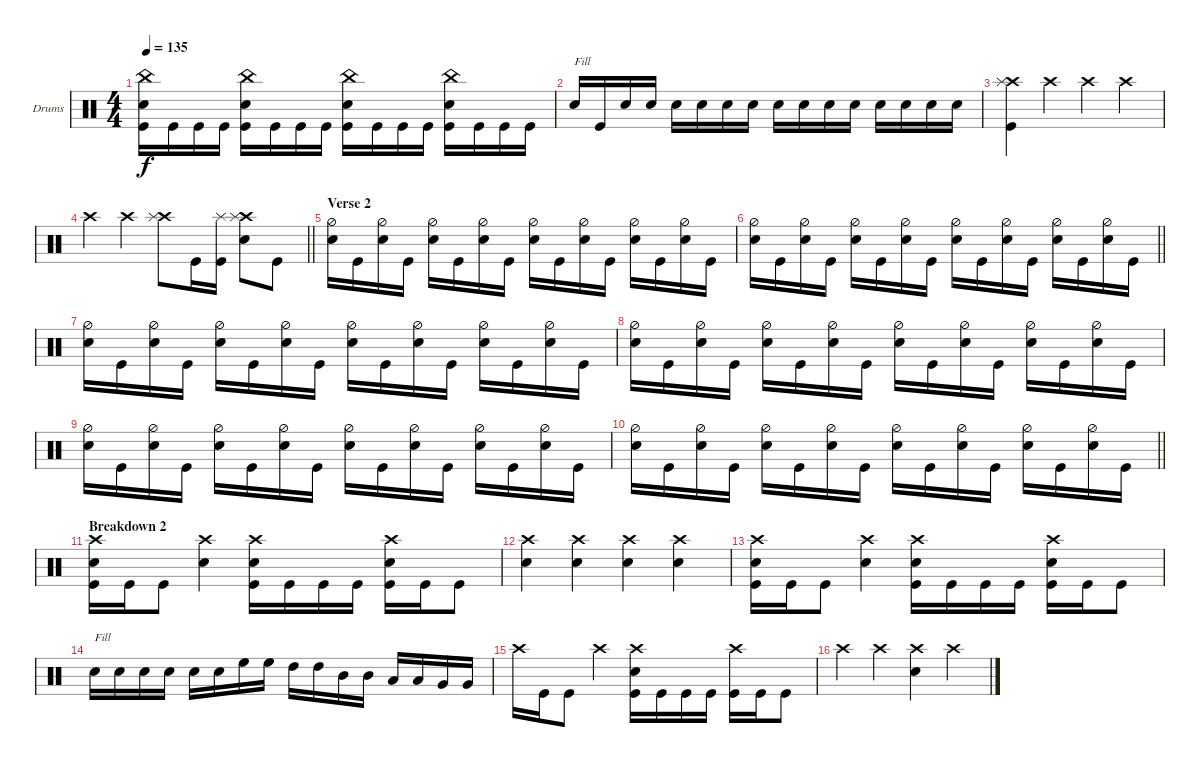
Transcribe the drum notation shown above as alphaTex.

\bracketExtendMode groupsimilarinstruments
\firstSystemTrackNameOrientation horizontal
\otherSystemsTrackNameOrientation horizontal
\track ("Drumkit" "Drums") {instrument percussion}
\staff {score}
\articulation defaults
\ts (4 4)
\tempo 135
\clef neutral
\ks c
("Kick (hit)" "Snare (hit) 2" "China (hit)").16{dy f} "Kick (hit)".16 "Kick (hit)".16 "Kick (hit)".16 ("Kick (hit)" "Snare (hit) 2" "China (hit)").16 "Kick (hit)".16 "Kick (hit)".16 "Kick (hit)".16 ("Kick (hit)" "Snare (hit) 2" "China (hit)").16 "Kick (hit)".16 "Kick (hit)".16 "Kick (hit)".16 ("Kick (hit)" "Snare (hit) 2" "China (hit)").16 "Kick (hit)".16 "Kick (hit)".16 "Kick (hit)".16 |
"Snare (hit) 2".16{txt "Fill"} "Kick (hit)".16 "Snare (hit) 2".16 "Snare (hit) 2".16 "Snare (hit) 2".16 "Snare (hit) 2".16 "Snare (hit) 2".16 "Snare (hit) 2".16 "Snare (hit) 2".16 "Snare (hit) 2".16 "Snare (hit) 2".16 "Snare (hit) 2".16 "Snare (hit) 2".16 "Snare (hit) 2".16 "Snare (hit) 2".16 "Snare (hit) 2".16 |
("Crash high (hit)" "Splash (hit)" "Kick (hit)").4 "Crash high (hit)".4 "Crash high (hit)".4 "Crash high (hit)".4 |
\barLineRight lightlight "Crash high (hit)".4 "Crash high (hit)".4
("Crash high (hit)" "Splash (hit)").8 "Kick (hit)".16 ("Kick (hit)" "Splash (hit)").16 ("Crash high (hit)" "Splash (hit)" "Snare (hit) 2").8 "Kick (hit)".8 |
\section ("" "Verse 2")
("Snare (hit) 2" "Hi-Hat (half)").16 "Kick (hit)".16 ("Snare (hit) 2" "Hi-Hat (half)").16 "Kick (hit)".16 ("Snare (hit) 2" "Hi-Hat (half)").16 "Kick (hit)".16 ("Snare (hit) 2" "Hi-Hat (half)").16 "Kick (hit)".16 ("Snare (hit) 2" "Hi-Hat (half)").16 "Kick (hit)".16 ("Snare (hit) 2" "Hi-Hat (half)").16 "Kick (hit)".16 ("Snare (hit) 2" "Hi-Hat (half)").16 "Kick (hit)".16 ("Snare (hit) 2" "Hi-Hat (half)").16 "Kick (hit)".16 |
\barLineRight lightlight
("Snare (hit) 2" "Hi-Hat (half)").16 "Kick (hit)".16 ("Snare (hit) 2" "Hi-Hat (half)").16 "Kick (hit)".16 ("Snare (hit) 2" "Hi-Hat (half)").16 "Kick (hit)".16 ("Snare (hit) 2" "Hi-Hat (half)").16 "Kick (hit)".16 ("Snare (hit) 2" "Hi-Hat (half)").16 "Kick (hit)".16 ("Snare (hit) 2" "Hi-Hat (half)").16 "Kick (hit)".16 ("Snare (hit) 2" "Hi-Hat (half)").16 "Kick (hit)".16 ("Snare (hit) 2" "Hi-Hat (half)").16 "Kick (hit)".16 |
("Snare (hit) 2" "Hi-Hat (half)").16 "Kick (hit)".16 ("Snare (hit) 2" "Hi-Hat (half)").16 "Kick (hit)".16 ("Snare (hit) 2" "Hi-Hat (half)").16 "Kick (hit)".16 ("Snare (hit) 2" "Hi-Hat (half)").16 "Kick (hit)".16 ("Snare (hit) 2" "Hi-Hat (half)").16 "Kick (hit)".16 ("Snare (hit) 2" "Hi-Hat (half)").16 "Kick (hit)".16 ("Snare (hit) 2" "Hi-Hat (half)").16 "Kick (hit)".16 ("Snare (hit) 2" "Hi-Hat (half)").16 "Kick (hit)".16 |
("Snare (hit) 2" "Hi-Hat (half)").16 "Kick (hit)".16 ("Snare (hit) 2" "Hi-Hat (half)").16 "Kick (hit)".16 ("Snare (hit) 2" "Hi-Hat (half)").16 "Kick (hit)".16 ("Snare (hit) 2" "Hi-Hat (half)").16 "Kick (hit)".16 ("Snare (hit) 2" "Hi-Hat (half)").16 "Kick (hit)".16 ("Snare (hit) 2" "Hi-Hat (half)").16 "Kick (hit)".16 ("Snare (hit) 2" "Hi-Hat (half)").16 "Kick (hit)".16 ("Snare (hit) 2" "Hi-Hat (half)").16 "Kick (hit)".16 |
("Snare (hit) 2" "Hi-Hat (half)").16 "Kick (hit)".16 ("Snare (hit) 2" "Hi-Hat (half)").16 "Kick (hit)".16 ("Snare (hit) 2" "Hi-Hat (half)").16 "Kick (hit)".16 ("Snare (hit) 2" "Hi-Hat (half)").16 "Kick (hit)".16 ("Snare (hit) 2" "Hi-Hat (half)").16 "Kick (hit)".16 ("Snare (hit) 2" "Hi-Hat (half)").16 "Kick (hit)".16 ("Snare (hit) 2" "Hi-Hat (half)").16 "Kick (hit)".16 ("Snare (hit) 2" "Hi-Hat (half)").16 "Kick (hit)".16 |
\barLineRight lightlight
("Snare (hit) 2" "Hi-Hat (half)").16 "Kick (hit)".16 ("Snare (hit) 2" "Hi-Hat (half)").16 "Kick (hit)".16 ("Snare (hit) 2" "Hi-Hat (half)").16 "Kick (hit)".16 ("Snare (hit) 2" "Hi-Hat (half)").16 "Kick (hit)".16 ("Snare (hit) 2" "Hi-Hat (half)").16 "Kick (hit)".16 ("Snare (hit) 2" "Hi-Hat (half)").16 "Kick (hit)".16 ("Snare (hit) 2" "Hi-Hat (half)").16 "Kick (hit)".16 ("Snare (hit) 2" "Hi-Hat (half)").16 "Kick (hit)".16 |
\section ("" "Breakdown 2")
("Kick (hit)" "Crash high (hit)" "Snare (hit) 2").16 "Kick (hit)".16 "Kick (hit)".8 ("Crash high (hit)" "Snare (hit) 2").4 ("Crash high (hit)" "Kick (hit)" "Snare (hit) 2").16 "Kick (hit)".16 "Kick (hit)".16 "Kick (hit)".16 ("Kick (hit)" "Crash high (hit)" "Snare (hit) 2").16 "Kick (hit)".16 "Kick (hit)".8 |
("Crash high (hit)" "Snare (hit) 2").4 ("Crash high (hit)" "Snare (hit) 2").4 ("Crash high (hit)" "Snare (hit) 2").4 ("Crash high (hit)" "Snare (hit) 2").4 |
("Kick (hit)" "Crash high (hit)" "Snare (hit) 2").16 "Kick (hit)".16 "Kick (hit)".8 ("Crash high (hit)" "Snare (hit) 2").4 ("Crash high (hit)" "Kick (hit)" "Snare (hit) 2").16 "Kick (hit)".16 "Kick (hit)".16 "Kick (hit)".16 ("Kick (hit)" "Crash high (hit)" "Snare (hit) 2").16 "Kick (hit)".16 "Kick (hit)".8 |
"Snare (hit) 2".16{txt "Fill"} "Snare (hit) 2".16 "Snare (hit) 2".16 "Snare (hit) 2".16 "Snare (hit) 2".16 "Snare (hit) 2".16 "High Floor Tom (hit)".16 "High Floor Tom (hit)".16 "High Tom (hit)".16 "High Tom (hit)".16 "Mid Tom (hit)".16 "Mid Tom (hit)".16 "Low Tom (hit)".16 "Low Tom (hit)".16 "Very Low Tom (hit)".16 "Very Low Tom (hit)".16 |
"Crash high (hit)".16 "Kick (hit)".16 "Kick (hit)".8 "Crash high (hit)".4 ("Crash high (hit)" "Kick (hit)" "Snare (hit) 2").16 "Kick (hit)".16 "Kick (hit)".16 "Kick (hit)".16 ("Kick (hit)" "Crash high (hit)").16 "Kick (hit)".16 "Kick (hit)".8 |
"Crash high (hit)".4 "Crash high (hit)".4 ("Crash high (hit)" "Snare (hit) 2").4 "Crash high (hit)".4
